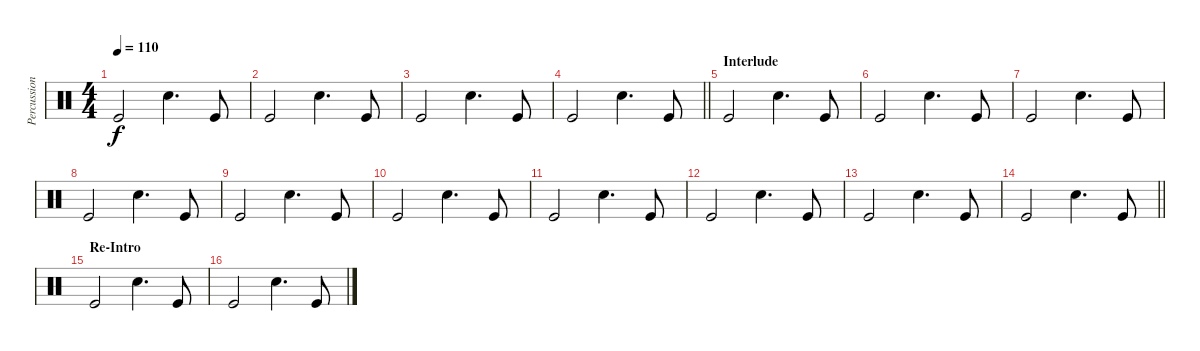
\track ("Percussion" "Percussion") {instrument percussion}
\staff {score}
\articulation defaults
\ts (4 4)
\tempo 110
\clef neutral
\ks c "Kick (hit)".2{dy f} "Electric Snare (hit)".4{d} "Kick (hit)".8
|
"Kick (hit)".2 "Electric Snare (hit)".4{d} "Kick (hit)".8 |
"Kick (hit)".2 "Electric Snare (hit)".4{d} "Kick (hit)".8 |
\barLineRight lightlight "Kick (hit)".2 "Electric Snare (hit)".4{d} "Kick (hit)".8
|
\section ("" "Interlude")
"Kick (hit)".2 "Electric Snare (hit)".4{d} "Kick (hit)".8 |
"Kick (hit)".2 "Electric Snare (hit)".4{d} "Kick (hit)".8 |
"Kick (hit)".2 "Electric Snare (hit)".4{d} "Kick (hit)".8 |
"Kick (hit)".2 "Electric Snare (hit)".4{d} "Kick (hit)".8 |
"Kick (hit)".2 "Electric Snare (hit)".4{d} "Kick (hit)".8 |
"Kick (hit)".2 "Electric Snare (hit)".4{d} "Kick (hit)".8 |
"Kick (hit)".2 "Electric Snare (hit)".4{d} "Kick (hit)".8 |
"Kick (hit)".2 "Electric Snare (hit)".4{d} "Kick (hit)".8 |
"Kick (hit)".2 "Electric Snare (hit)".4{d} "Kick (hit)".8 |
\barLineRight lightlight "Kick (hit)".2 "Electric Snare (hit)".4{d} "Kick (hit)".8
|
\section ("" "Re-Intro")
"Kick (hit)".2 "Electric Snare (hit)".4{d} "Kick (hit)".8 |
"Kick (hit)".2 "Electric Snare (hit)".4{d} "Kick (hit)".8
